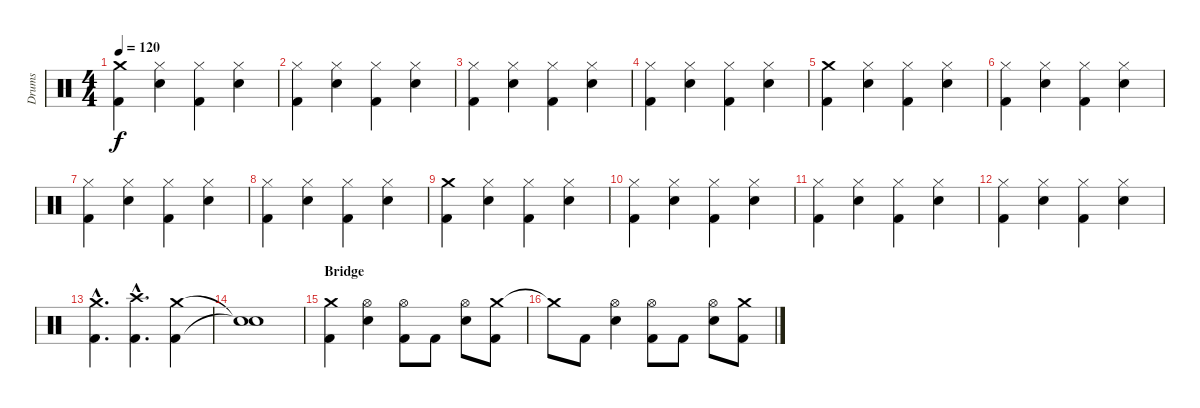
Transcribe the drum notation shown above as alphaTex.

\track ("Drums" "Drums") {instrument percussion}
\staff {score}
\articulation defaults
\ts (4 4)
\tempo 120
\clef neutral
\ks c
("Crash medium (hit)" "Kick (hit) 2").4{dy f} ("Hi-Hat (closed)" "Electric Snare (hit)").4 ("Hi-Hat (closed)" "Kick (hit) 2").4 ("Hi-Hat (closed)" "Electric Snare (hit)").4 |
("Hi-Hat (closed)" "Kick (hit) 2").4 ("Hi-Hat (closed)" "Electric Snare (hit)").4 ("Hi-Hat (closed)" "Kick (hit) 2").4 ("Hi-Hat (closed)" "Electric Snare (hit)").4 |
("Hi-Hat (closed)" "Kick (hit) 2").4 ("Hi-Hat (closed)" "Electric Snare (hit)").4 ("Hi-Hat (closed)" "Kick (hit) 2").4 ("Hi-Hat (closed)" "Electric Snare (hit)").4 |
("Hi-Hat (closed)" "Kick (hit) 2").4 ("Hi-Hat (closed)" "Electric Snare (hit)").4 ("Hi-Hat (closed)" "Kick (hit) 2").4 ("Hi-Hat (closed)" "Electric Snare (hit)").4 |
("Crash medium (hit)" "Kick (hit) 2").4 ("Hi-Hat (closed)" "Electric Snare (hit)").4 ("Hi-Hat (closed)" "Kick (hit) 2").4 ("Hi-Hat (closed)" "Electric Snare (hit)").4 |
("Hi-Hat (closed)" "Kick (hit) 2").4 ("Hi-Hat (closed)" "Electric Snare (hit)").4 ("Hi-Hat (closed)" "Kick (hit) 2").4 ("Hi-Hat (closed)" "Electric Snare (hit)").4 |
("Hi-Hat (closed)" "Kick (hit) 2").4 ("Hi-Hat (closed)" "Electric Snare (hit)").4 ("Hi-Hat (closed)" "Kick (hit) 2").4 ("Hi-Hat (closed)" "Electric Snare (hit)").4 |
("Hi-Hat (closed)" "Kick (hit) 2").4 ("Hi-Hat (closed)" "Electric Snare (hit)").4 ("Hi-Hat (closed)" "Kick (hit) 2").4 ("Hi-Hat (closed)" "Electric Snare (hit)").4 |
("Crash medium (hit)" "Kick (hit) 2").4 ("Hi-Hat (closed)" "Electric Snare (hit)").4 ("Hi-Hat (closed)" "Kick (hit) 2").4 ("Hi-Hat (closed)" "Electric Snare (hit)").4 |
("Hi-Hat (closed)" "Kick (hit) 2").4 ("Hi-Hat (closed)" "Electric Snare (hit)").4 ("Hi-Hat (closed)" "Kick (hit) 2").4 ("Hi-Hat (closed)" "Electric Snare (hit)").4 |
("Hi-Hat (closed)" "Kick (hit) 2").4 ("Hi-Hat (closed)" "Electric Snare (hit)").4 ("Hi-Hat (closed)" "Kick (hit) 2").4 ("Hi-Hat (closed)" "Electric Snare (hit)").4 |
("Hi-Hat (closed)" "Kick (hit) 2").4 ("Hi-Hat (closed)" "Electric Snare (hit)").4 ("Hi-Hat (closed)" "Kick (hit) 2").4 ("Hi-Hat (closed)" "Electric Snare (hit)").4 |
("Crash medium (hit)"{hac} "Kick (hit) 2"{hac}).4{d} ("Crash high (hit)"{hac} "Kick (hit) 2"{hac}).4{d} ("Crash medium (hit)" "Kick (hit) 2").4 |
("Snare (hit)"{t} "Snare (hit)"{t}).1 |
\section ("" "Bridge")
("Crash medium (hit)" "Kick (hit) 2").4 ("Hi-Hat (open)" "Electric Snare (hit)").4 ("Hi-Hat (open)" "Kick (hit) 2").8 "Kick (hit) 2".8 ("Hi-Hat (open)" "Electric Snare (hit)").8 ("Crash medium (hit)" "Kick (hit) 2").8 |
"Crash medium (hit)"{t}.8 "Kick (hit) 2".8 ("Hi-Hat (open)" "Electric Snare (hit)").4 ("Hi-Hat (open)" "Kick (hit) 2").8 "Kick (hit) 2".8 ("Hi-Hat (open)" "Electric Snare (hit)").8 ("Crash medium (hit)" "Kick (hit) 2").8
